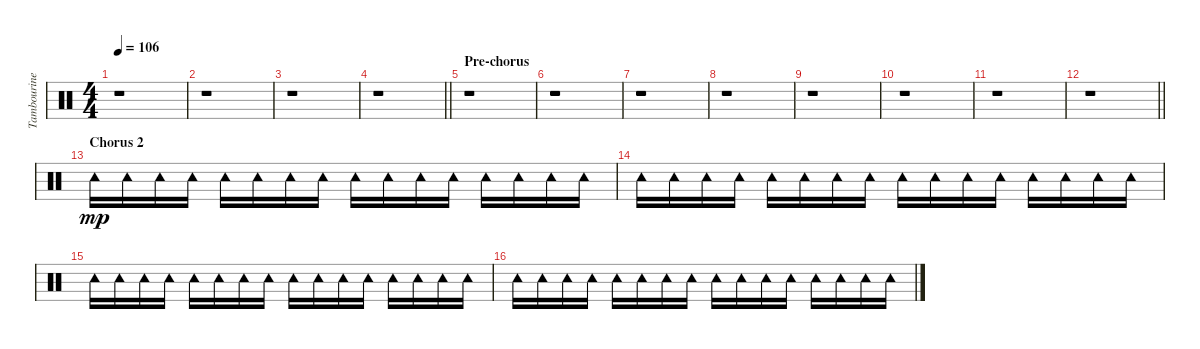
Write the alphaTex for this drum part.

\track ("Tambourine" "Tambourine") {instrument percussion}
\staff {score}
\articulation defaults
\ts (4 4)
\tempo 106
\clef neutral
\ks c
r.1{dy mp} |
r.1 |
r.1 |
\barLineRight lightlight
r.1 |
\section ("" "Pre-chorus")
r.1 |
r.1 |
r.1 |
r.1 |
r.1 |
r.1 |
r.1 |
\barLineRight lightlight
r.1 |
\section ("" "Chorus 2")
"Tambourine (hit)".16 "Tambourine (hit)".16 "Tambourine (hit)".16 "Tambourine (hit)".16 "Tambourine (hit)".16 "Tambourine (hit)".16 "Tambourine (hit)".16 "Tambourine (hit)".16 "Tambourine (hit)".16 "Tambourine (hit)".16 "Tambourine (hit)".16 "Tambourine (hit)".16 "Tambourine (hit)".16 "Tambourine (hit)".16 "Tambourine (hit)".16 "Tambourine (hit)".16 |
"Tambourine (hit)".16 "Tambourine (hit)".16 "Tambourine (hit)".16 "Tambourine (hit)".16 "Tambourine (hit)".16 "Tambourine (hit)".16 "Tambourine (hit)".16 "Tambourine (hit)".16 "Tambourine (hit)".16 "Tambourine (hit)".16 "Tambourine (hit)".16 "Tambourine (hit)".16 "Tambourine (hit)".16 "Tambourine (hit)".16 "Tambourine (hit)".16 "Tambourine (hit)".16 |
"Tambourine (hit)".16 "Tambourine (hit)".16 "Tambourine (hit)".16 "Tambourine (hit)".16 "Tambourine (hit)".16 "Tambourine (hit)".16 "Tambourine (hit)".16 "Tambourine (hit)".16 "Tambourine (hit)".16 "Tambourine (hit)".16 "Tambourine (hit)".16 "Tambourine (hit)".16 "Tambourine (hit)".16 "Tambourine (hit)".16 "Tambourine (hit)".16 "Tambourine (hit)".16 |
"Tambourine (hit)".16 "Tambourine (hit)".16 "Tambourine (hit)".16 "Tambourine (hit)".16 "Tambourine (hit)".16 "Tambourine (hit)".16 "Tambourine (hit)".16 "Tambourine (hit)".16 "Tambourine (hit)".16 "Tambourine (hit)".16 "Tambourine (hit)".16 "Tambourine (hit)".16 "Tambourine (hit)".16 "Tambourine (hit)".16 "Tambourine (hit)".16 "Tambourine (hit)".16
